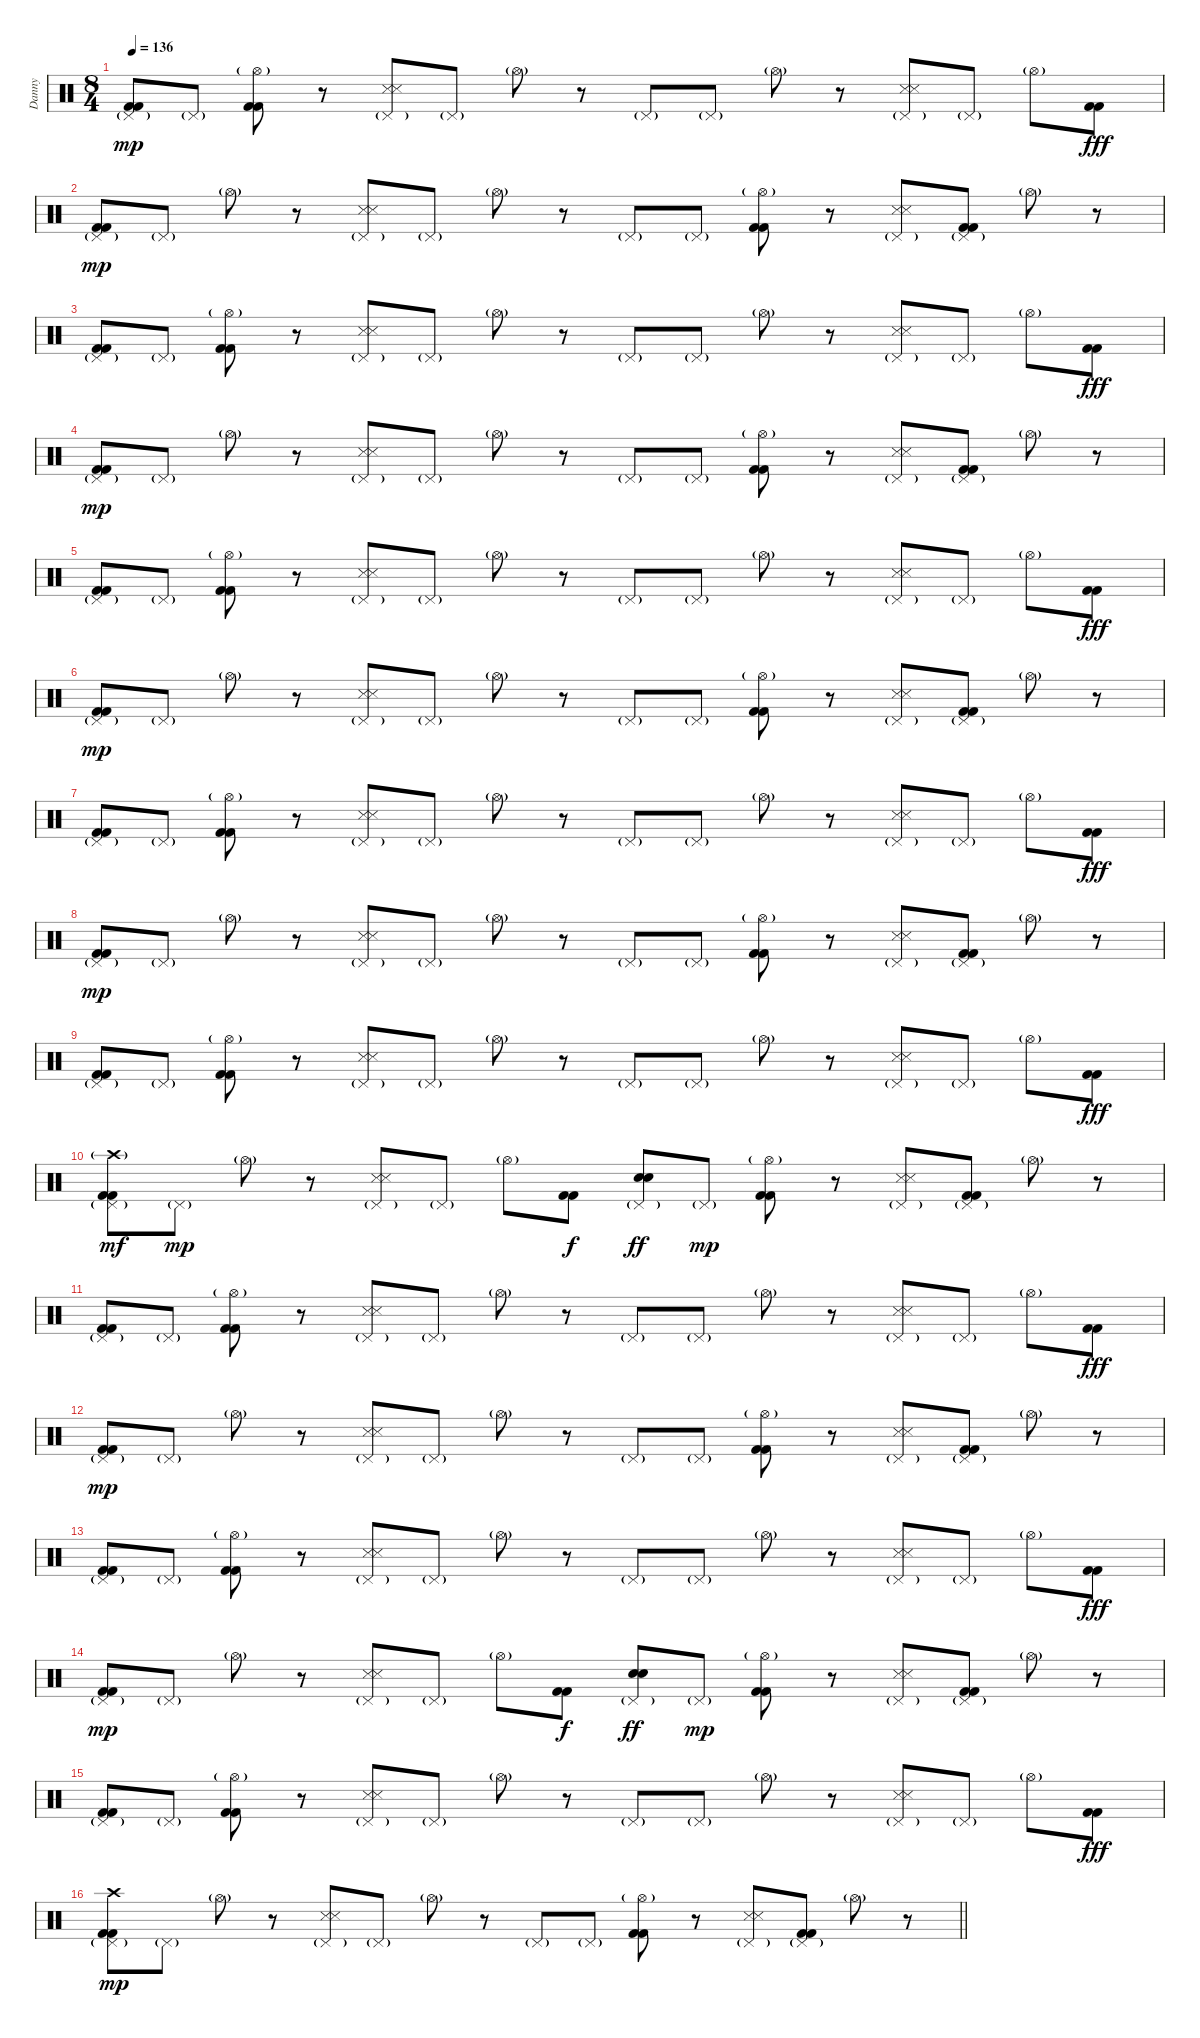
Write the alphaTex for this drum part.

\track ("Danny" "Danny") {instrument percussion}
\staff {score}
\articulation defaults
\ts (8 4)
\tempo 136
\clef neutral
\ks c
("Pedal Hi-Hat (hit)"{g} "Kick (hit) 2" "Kick (hit) 2").8{dy mp} "Pedal Hi-Hat (hit)"{g}.8 ("Hi-Hat (open)"{g} "Kick (hit) 2" "Kick (hit) 2").8 r.8 ("Pedal Hi-Hat (hit)"{g} "Snare (side stick) 3" "Snare (side stick) 3").8 "Pedal Hi-Hat (hit)"{g}.8 "Hi-Hat (open)"{g}.8 r.8 "Pedal Hi-Hat (hit)"{g}.8 "Pedal Hi-Hat (hit)"{g}.8 "Hi-Hat (open)"{g}.8 r.8 ("Pedal Hi-Hat (hit)"{g} "Snare (side stick) 3" "Snare (side stick) 3").8 "Pedal Hi-Hat (hit)"{g}.8 "Hi-Hat (open)"{g}.8 ("Kick (hit) 2" "Kick (hit) 2").8{dy fff} |
("Pedal Hi-Hat (hit)"{g} "Kick (hit) 2" "Kick (hit) 2").8{dy mp} "Pedal Hi-Hat (hit)"{g}.8 "Hi-Hat (open)"{g}.8 r.8 ("Pedal Hi-Hat (hit)"{g} "Snare (side stick) 3" "Snare (side stick) 3").8 "Pedal Hi-Hat (hit)"{g}.8 "Hi-Hat (open)"{g}.8 r.8 "Pedal Hi-Hat (hit)"{g}.8 "Pedal Hi-Hat (hit)"{g}.8 ("Hi-Hat (open)"{g} "Kick (hit) 2" "Kick (hit) 2").8 r.8 ("Pedal Hi-Hat (hit)"{g} "Snare (side stick) 3" "Snare (side stick) 3").8 ("Pedal Hi-Hat (hit)"{g} "Kick (hit) 2" "Kick (hit) 2").8 "Hi-Hat (open)"{g}.8 r.8 |
("Pedal Hi-Hat (hit)"{g} "Kick (hit) 2" "Kick (hit) 2").8 "Pedal Hi-Hat (hit)"{g}.8 ("Hi-Hat (open)"{g} "Kick (hit) 2" "Kick (hit) 2").8 r.8 ("Pedal Hi-Hat (hit)"{g} "Snare (side stick) 3" "Snare (side stick) 3").8 "Pedal Hi-Hat (hit)"{g}.8 "Hi-Hat (open)"{g}.8 r.8 "Pedal Hi-Hat (hit)"{g}.8 "Pedal Hi-Hat (hit)"{g}.8 "Hi-Hat (open)"{g}.8 r.8 ("Pedal Hi-Hat (hit)"{g} "Snare (side stick) 3" "Snare (side stick) 3").8 "Pedal Hi-Hat (hit)"{g}.8 "Hi-Hat (open)"{g}.8 ("Kick (hit) 2" "Kick (hit) 2").8{dy fff} |
("Pedal Hi-Hat (hit)"{g} "Kick (hit) 2" "Kick (hit) 2").8{dy mp} "Pedal Hi-Hat (hit)"{g}.8 "Hi-Hat (open)"{g}.8 r.8 ("Pedal Hi-Hat (hit)"{g} "Snare (side stick) 3" "Snare (side stick) 3").8 "Pedal Hi-Hat (hit)"{g}.8 "Hi-Hat (open)"{g}.8 r.8 "Pedal Hi-Hat (hit)"{g}.8 "Pedal Hi-Hat (hit)"{g}.8 ("Hi-Hat (open)"{g} "Kick (hit) 2" "Kick (hit) 2").8 r.8 ("Pedal Hi-Hat (hit)"{g} "Snare (side stick) 3" "Snare (side stick) 3").8 ("Pedal Hi-Hat (hit)"{g} "Kick (hit) 2" "Kick (hit) 2").8 "Hi-Hat (open)"{g}.8 r.8 |
("Pedal Hi-Hat (hit)"{g} "Kick (hit) 2" "Kick (hit) 2").8 "Pedal Hi-Hat (hit)"{g}.8 ("Hi-Hat (open)"{g} "Kick (hit) 2" "Kick (hit) 2").8 r.8 ("Pedal Hi-Hat (hit)"{g} "Snare (side stick) 3" "Snare (side stick) 3").8 "Pedal Hi-Hat (hit)"{g}.8 "Hi-Hat (open)"{g}.8 r.8 "Pedal Hi-Hat (hit)"{g}.8 "Pedal Hi-Hat (hit)"{g}.8 "Hi-Hat (open)"{g}.8 r.8 ("Pedal Hi-Hat (hit)"{g} "Snare (side stick) 3" "Snare (side stick) 3").8 "Pedal Hi-Hat (hit)"{g}.8 "Hi-Hat (open)"{g}.8 ("Kick (hit) 2" "Kick (hit) 2").8{dy fff} |
("Pedal Hi-Hat (hit)"{g} "Kick (hit) 2" "Kick (hit) 2").8{dy mp} "Pedal Hi-Hat (hit)"{g}.8 "Hi-Hat (open)"{g}.8 r.8 ("Pedal Hi-Hat (hit)"{g} "Snare (side stick) 3" "Snare (side stick) 3").8 "Pedal Hi-Hat (hit)"{g}.8 "Hi-Hat (open)"{g}.8 r.8 "Pedal Hi-Hat (hit)"{g}.8 "Pedal Hi-Hat (hit)"{g}.8 ("Hi-Hat (open)"{g} "Kick (hit) 2" "Kick (hit) 2").8 r.8 ("Pedal Hi-Hat (hit)"{g} "Snare (side stick) 3" "Snare (side stick) 3").8 ("Pedal Hi-Hat (hit)"{g} "Kick (hit) 2" "Kick (hit) 2").8 "Hi-Hat (open)"{g}.8 r.8 |
("Pedal Hi-Hat (hit)"{g} "Kick (hit) 2" "Kick (hit) 2").8 "Pedal Hi-Hat (hit)"{g}.8 ("Hi-Hat (open)"{g} "Kick (hit) 2" "Kick (hit) 2").8 r.8 ("Pedal Hi-Hat (hit)"{g} "Snare (side stick) 3" "Snare (side stick) 3").8 "Pedal Hi-Hat (hit)"{g}.8 "Hi-Hat (open)"{g}.8 r.8 "Pedal Hi-Hat (hit)"{g}.8 "Pedal Hi-Hat (hit)"{g}.8 "Hi-Hat (open)"{g}.8 r.8 ("Pedal Hi-Hat (hit)"{g} "Snare (side stick) 3" "Snare (side stick) 3").8 "Pedal Hi-Hat (hit)"{g}.8 "Hi-Hat (open)"{g}.8 ("Kick (hit) 2" "Kick (hit) 2").8{dy fff} |
("Pedal Hi-Hat (hit)"{g} "Kick (hit) 2" "Kick (hit) 2").8{dy mp} "Pedal Hi-Hat (hit)"{g}.8 "Hi-Hat (open)"{g}.8 r.8 ("Pedal Hi-Hat (hit)"{g} "Snare (side stick) 3" "Snare (side stick) 3").8 "Pedal Hi-Hat (hit)"{g}.8 "Hi-Hat (open)"{g}.8 r.8 "Pedal Hi-Hat (hit)"{g}.8 "Pedal Hi-Hat (hit)"{g}.8 ("Hi-Hat (open)"{g} "Kick (hit) 2" "Kick (hit) 2").8 r.8 ("Pedal Hi-Hat (hit)"{g} "Snare (side stick) 3" "Snare (side stick) 3").8 ("Pedal Hi-Hat (hit)"{g} "Kick (hit) 2" "Kick (hit) 2").8 "Hi-Hat (open)"{g}.8 r.8 |
("Pedal Hi-Hat (hit)"{g} "Kick (hit) 2" "Kick (hit) 2").8 "Pedal Hi-Hat (hit)"{g}.8 ("Hi-Hat (open)"{g} "Kick (hit) 2" "Kick (hit) 2").8 r.8 ("Pedal Hi-Hat (hit)"{g} "Snare (side stick) 3" "Snare (side stick) 3").8 "Pedal Hi-Hat (hit)"{g}.8 "Hi-Hat (open)"{g}.8 r.8 "Pedal Hi-Hat (hit)"{g}.8 "Pedal Hi-Hat (hit)"{g}.8 "Hi-Hat (open)"{g}.8 r.8 ("Pedal Hi-Hat (hit)"{g} "Snare (side stick) 3" "Snare (side stick) 3").8 "Pedal Hi-Hat (hit)"{g}.8 "Hi-Hat (open)"{g}.8 ("Kick (hit) 2" "Kick (hit) 2").8{dy fff} |
("Pedal Hi-Hat (hit)"{g} "Kick (hit) 2" "Kick (hit) 2" "Crash high (hit)"{g}).8{dy mf} "Pedal Hi-Hat (hit)"{g}.8{dy mp} "Hi-Hat (open)"{g}.8 r.8 ("Pedal Hi-Hat (hit)"{g} "Snare (side stick) 3" "Snare (side stick) 3").8 "Pedal Hi-Hat (hit)"{g}.8 "Hi-Hat (open)"{g}.8 ("Kick (hit) 2" "Kick (hit) 2").8{dy f} ("Pedal Hi-Hat (hit)"{g} "Snare (hit) 2" "Snare (hit) 2").8{dy ff} "Pedal Hi-Hat (hit)"{g}.8{dy mp} ("Hi-Hat (open)"{g} "Kick (hit) 2" "Kick (hit) 2").8 r.8 ("Pedal Hi-Hat (hit)"{g} "Snare (side stick) 3" "Snare (side stick) 3").8 ("Pedal Hi-Hat (hit)"{g} "Kick (hit) 2" "Kick (hit) 2").8 "Hi-Hat (open)"{g}.8 r.8 |
("Pedal Hi-Hat (hit)"{g} "Kick (hit) 2" "Kick (hit) 2").8 "Pedal Hi-Hat (hit)"{g}.8 ("Hi-Hat (open)"{g} "Kick (hit) 2" "Kick (hit) 2").8 r.8 ("Pedal Hi-Hat (hit)"{g} "Snare (side stick) 3" "Snare (side stick) 3").8 "Pedal Hi-Hat (hit)"{g}.8 "Hi-Hat (open)"{g}.8 r.8 "Pedal Hi-Hat (hit)"{g}.8 "Pedal Hi-Hat (hit)"{g}.8 "Hi-Hat (open)"{g}.8 r.8 ("Pedal Hi-Hat (hit)"{g} "Snare (side stick) 3" "Snare (side stick) 3").8 "Pedal Hi-Hat (hit)"{g}.8 "Hi-Hat (open)"{g}.8 ("Kick (hit) 2" "Kick (hit) 2").8{dy fff} |
("Pedal Hi-Hat (hit)"{g} "Kick (hit) 2" "Kick (hit) 2").8{dy mp} "Pedal Hi-Hat (hit)"{g}.8 "Hi-Hat (open)"{g}.8 r.8 ("Pedal Hi-Hat (hit)"{g} "Snare (side stick) 3" "Snare (side stick) 3").8 "Pedal Hi-Hat (hit)"{g}.8 "Hi-Hat (open)"{g}.8 r.8 "Pedal Hi-Hat (hit)"{g}.8 "Pedal Hi-Hat (hit)"{g}.8 ("Hi-Hat (open)"{g} "Kick (hit) 2" "Kick (hit) 2").8 r.8 ("Pedal Hi-Hat (hit)"{g} "Snare (side stick) 3" "Snare (side stick) 3").8 ("Pedal Hi-Hat (hit)"{g} "Kick (hit) 2" "Kick (hit) 2").8 "Hi-Hat (open)"{g}.8 r.8 |
("Pedal Hi-Hat (hit)"{g} "Kick (hit) 2" "Kick (hit) 2").8 "Pedal Hi-Hat (hit)"{g}.8 ("Hi-Hat (open)"{g} "Kick (hit) 2" "Kick (hit) 2").8 r.8 ("Pedal Hi-Hat (hit)"{g} "Snare (side stick) 3" "Snare (side stick) 3").8 "Pedal Hi-Hat (hit)"{g}.8 "Hi-Hat (open)"{g}.8 r.8 "Pedal Hi-Hat (hit)"{g}.8 "Pedal Hi-Hat (hit)"{g}.8 "Hi-Hat (open)"{g}.8 r.8 ("Pedal Hi-Hat (hit)"{g} "Snare (side stick) 3" "Snare (side stick) 3").8 "Pedal Hi-Hat (hit)"{g}.8 "Hi-Hat (open)"{g}.8 ("Kick (hit) 2" "Kick (hit) 2").8{dy fff} |
("Pedal Hi-Hat (hit)"{g} "Kick (hit) 2" "Kick (hit) 2").8{dy mp} "Pedal Hi-Hat (hit)"{g}.8 "Hi-Hat (open)"{g}.8 r.8 ("Pedal Hi-Hat (hit)"{g} "Snare (side stick) 3" "Snare (side stick) 3").8 "Pedal Hi-Hat (hit)"{g}.8 "Hi-Hat (open)"{g}.8 ("Kick (hit) 2" "Kick (hit) 2").8{dy f} ("Pedal Hi-Hat (hit)"{g} "Snare (hit) 2" "Snare (hit) 2").8{dy ff} "Pedal Hi-Hat (hit)"{g}.8{dy mp} ("Hi-Hat (open)"{g} "Kick (hit) 2" "Kick (hit) 2").8 r.8 ("Pedal Hi-Hat (hit)"{g} "Snare (side stick) 3" "Snare (side stick) 3").8 ("Pedal Hi-Hat (hit)"{g} "Kick (hit) 2" "Kick (hit) 2").8 "Hi-Hat (open)"{g}.8 r.8 |
("Pedal Hi-Hat (hit)"{g} "Kick (hit) 2" "Kick (hit) 2").8 "Pedal Hi-Hat (hit)"{g}.8 ("Hi-Hat (open)"{g} "Kick (hit) 2" "Kick (hit) 2").8 r.8 ("Pedal Hi-Hat (hit)"{g} "Snare (side stick) 3" "Snare (side stick) 3").8 "Pedal Hi-Hat (hit)"{g}.8 "Hi-Hat (open)"{g}.8 r.8 "Pedal Hi-Hat (hit)"{g}.8 "Pedal Hi-Hat (hit)"{g}.8 "Hi-Hat (open)"{g}.8 r.8 ("Pedal Hi-Hat (hit)"{g} "Snare (side stick) 3" "Snare (side stick) 3").8 "Pedal Hi-Hat (hit)"{g}.8 "Hi-Hat (open)"{g}.8 ("Kick (hit) 2" "Kick (hit) 2").8{dy fff} |
\barLineRight lightlight
("Pedal Hi-Hat (hit)"{g} "Kick (hit) 2" "Kick (hit) 2" "Crash high (hit)").8{dy mp} "Pedal Hi-Hat (hit)"{g}.8 "Hi-Hat (open)"{g}.8 r.8 ("Pedal Hi-Hat (hit)"{g} "Snare (side stick) 3" "Snare (side stick) 3").8 "Pedal Hi-Hat (hit)"{g}.8 "Hi-Hat (open)"{g}.8 r.8 "Pedal Hi-Hat (hit)"{g}.8 "Pedal Hi-Hat (hit)"{g}.8 ("Hi-Hat (open)"{g} "Kick (hit) 2" "Kick (hit) 2").8 r.8 ("Pedal Hi-Hat (hit)"{g} "Snare (side stick) 3" "Snare (side stick) 3").8 ("Pedal Hi-Hat (hit)"{g} "Kick (hit) 2" "Kick (hit) 2").8 "Hi-Hat (open)"{g}.8 r.8
